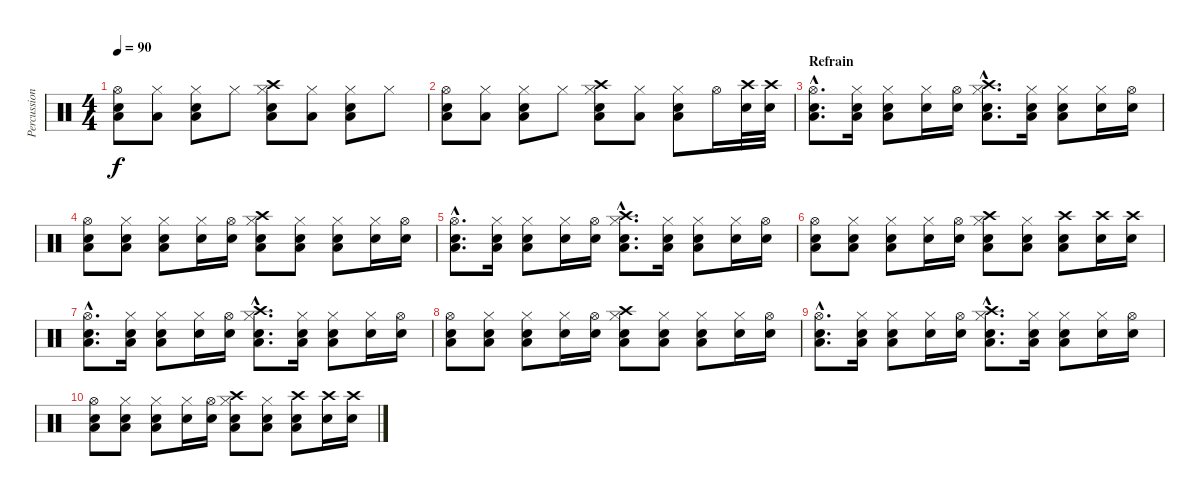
\track ("Percussions" "Percussion") {instrument percussion}
\staff {score}
\articulation defaults
\ts (4 4)
\tempo 90
\clef neutral
\ks c
("Hi-Hat (open)" "Snare (hit) 2" "Low Floor Tom (hit)").8{dy f} ("Hi-Hat (closed)" "Low Floor Tom (hit)").8 ("Hi-Hat (closed)" "Snare (hit) 2" "Low Floor Tom (hit)").8 "Hi-Hat (closed)".8 ("Hi-Hat (closed)" "Snare (hit) 2" "Low Floor Tom (hit)" "Crash high (hit)").8 ("Hi-Hat (closed)" "Low Floor Tom (hit)").8 ("Hi-Hat (closed)" "Snare (hit) 2" "Low Floor Tom (hit)").8 "Hi-Hat (closed)".8 |
("Hi-Hat (open)" "Snare (hit) 2" "Low Floor Tom (hit)").8 ("Hi-Hat (closed)" "Low Floor Tom (hit)").8 ("Hi-Hat (closed)" "Snare (hit) 2" "Low Floor Tom (hit)").8 "Hi-Hat (closed)".8 ("Hi-Hat (closed)" "Snare (hit) 2" "Low Floor Tom (hit)" "Crash high (hit)").8 ("Hi-Hat (closed)" "Low Floor Tom (hit)").8 ("Hi-Hat (closed)" "Snare (hit) 2" "Low Floor Tom (hit)").8 "Hi-Hat (open)".16 ("Crash high (hit)" "Snare (hit) 2").32 ("Crash high (hit)" "Snare (hit) 2").32 |
\section ("" "Refrain")
("Hi-Hat (open)"{hac} "Snare (hit) 2"{hac} "Low Floor Tom (hit)"{hac}).8{d} ("Hi-Hat (closed)" "Snare (hit) 2" "Low Floor Tom (hit)").16 ("Hi-Hat (closed)" "Snare (hit) 2" "Low Floor Tom (hit)").8 ("Hi-Hat (closed)" "Snare (hit) 2").16 ("Hi-Hat (open)" "Snare (hit) 2").16 ("Hi-Hat (closed)"{hac} "Snare (hit) 2"{hac} "Low Floor Tom (hit)"{hac} "Crash high (hit)"{hac}).8{d} ("Hi-Hat (closed)" "Snare (hit) 2" "Low Floor Tom (hit)").16 ("Hi-Hat (closed)" "Snare (hit) 2" "Low Floor Tom (hit)").8 ("Hi-Hat (closed)" "Snare (hit) 2").16 ("Hi-Hat (open)" "Snare (hit) 2").16 |
("Hi-Hat (open)" "Snare (hit) 2" "Low Floor Tom (hit)").8 ("Hi-Hat (closed)" "Snare (hit) 2" "Low Floor Tom (hit)").8 ("Hi-Hat (closed)" "Snare (hit) 2" "Low Floor Tom (hit)").8 ("Hi-Hat (closed)" "Snare (hit) 2").16 ("Hi-Hat (open)" "Snare (hit) 2").16 ("Hi-Hat (closed)" "Snare (hit) 2" "Low Floor Tom (hit)" "Crash high (hit)").8 ("Hi-Hat (closed)" "Snare (hit) 2" "Low Floor Tom (hit)").8 ("Hi-Hat (closed)" "Snare (hit) 2" "Low Floor Tom (hit)").8 ("Hi-Hat (closed)" "Snare (hit) 2").16 ("Hi-Hat (open)" "Snare (hit) 2").16 |
("Hi-Hat (open)"{hac} "Snare (hit) 2"{hac} "Low Floor Tom (hit)"{hac}).8{d} ("Hi-Hat (closed)" "Snare (hit) 2" "Low Floor Tom (hit)").16 ("Hi-Hat (closed)" "Snare (hit) 2" "Low Floor Tom (hit)").8 ("Hi-Hat (closed)" "Snare (hit) 2").16 ("Hi-Hat (open)" "Snare (hit) 2").16 ("Hi-Hat (closed)"{hac} "Snare (hit) 2"{hac} "Low Floor Tom (hit)"{hac} "Crash high (hit)"{hac}).8{d} ("Hi-Hat (closed)" "Snare (hit) 2" "Low Floor Tom (hit)").16 ("Hi-Hat (closed)" "Snare (hit) 2" "Low Floor Tom (hit)").8 ("Hi-Hat (closed)" "Snare (hit) 2").16 ("Hi-Hat (open)" "Snare (hit) 2").16 |
("Hi-Hat (open)" "Snare (hit) 2" "Low Floor Tom (hit)").8 ("Hi-Hat (closed)" "Snare (hit) 2" "Low Floor Tom (hit)").8 ("Hi-Hat (closed)" "Snare (hit) 2" "Low Floor Tom (hit)").8 ("Hi-Hat (closed)" "Snare (hit) 2").16 ("Hi-Hat (open)" "Snare (hit) 2").16 ("Hi-Hat (closed)" "Snare (hit) 2" "Low Floor Tom (hit)" "Crash high (hit)").8 ("Hi-Hat (closed)" "Snare (hit) 2" "Low Floor Tom (hit)").8 ("Crash high (hit)" "Snare (hit) 2" "Low Floor Tom (hit)").8 ("Crash high (hit)" "Snare (hit) 2").16 ("Crash high (hit)" "Snare (hit) 2").16 |
("Hi-Hat (open)"{hac} "Snare (hit) 2"{hac} "Low Floor Tom (hit)"{hac}).8{d} ("Hi-Hat (closed)" "Snare (hit) 2" "Low Floor Tom (hit)").16 ("Hi-Hat (closed)" "Snare (hit) 2" "Low Floor Tom (hit)").8 ("Hi-Hat (closed)" "Snare (hit) 2").16 ("Hi-Hat (open)" "Snare (hit) 2").16 ("Hi-Hat (closed)"{hac} "Snare (hit) 2"{hac} "Low Floor Tom (hit)"{hac} "Crash high (hit)"{hac}).8{d} ("Hi-Hat (closed)" "Snare (hit) 2" "Low Floor Tom (hit)").16 ("Hi-Hat (closed)" "Snare (hit) 2" "Low Floor Tom (hit)").8 ("Hi-Hat (closed)" "Snare (hit) 2").16 ("Hi-Hat (open)" "Snare (hit) 2").16 |
("Hi-Hat (open)" "Snare (hit) 2" "Low Floor Tom (hit)").8 ("Hi-Hat (closed)" "Snare (hit) 2" "Low Floor Tom (hit)").8 ("Hi-Hat (closed)" "Snare (hit) 2" "Low Floor Tom (hit)").8 ("Hi-Hat (closed)" "Snare (hit) 2").16 ("Hi-Hat (open)" "Snare (hit) 2").16 ("Hi-Hat (closed)" "Snare (hit) 2" "Low Floor Tom (hit)" "Crash high (hit)").8 ("Hi-Hat (closed)" "Snare (hit) 2" "Low Floor Tom (hit)").8 ("Hi-Hat (closed)" "Snare (hit) 2" "Low Floor Tom (hit)").8 ("Hi-Hat (closed)" "Snare (hit) 2").16 ("Hi-Hat (open)" "Snare (hit) 2").16 |
("Hi-Hat (open)"{hac} "Snare (hit) 2"{hac} "Low Floor Tom (hit)"{hac}).8{d} ("Hi-Hat (closed)" "Snare (hit) 2" "Low Floor Tom (hit)").16 ("Hi-Hat (closed)" "Snare (hit) 2" "Low Floor Tom (hit)").8 ("Hi-Hat (closed)" "Snare (hit) 2").16 ("Hi-Hat (open)" "Snare (hit) 2").16 ("Hi-Hat (closed)"{hac} "Snare (hit) 2"{hac} "Low Floor Tom (hit)"{hac} "Crash high (hit)"{hac}).8{d} ("Hi-Hat (closed)" "Snare (hit) 2" "Low Floor Tom (hit)").16 ("Hi-Hat (closed)" "Snare (hit) 2" "Low Floor Tom (hit)").8 ("Hi-Hat (closed)" "Snare (hit) 2").16 ("Hi-Hat (open)" "Snare (hit) 2").16 |
("Hi-Hat (open)" "Snare (hit) 2" "Low Floor Tom (hit)").8 ("Hi-Hat (closed)" "Snare (hit) 2" "Low Floor Tom (hit)").8 ("Hi-Hat (closed)" "Snare (hit) 2" "Low Floor Tom (hit)").8 ("Hi-Hat (closed)" "Snare (hit) 2").16 ("Hi-Hat (open)" "Snare (hit) 2").16 ("Hi-Hat (closed)" "Snare (hit) 2" "Low Floor Tom (hit)" "Crash high (hit)").8 ("Hi-Hat (closed)" "Snare (hit) 2" "Low Floor Tom (hit)").8 ("Crash high (hit)" "Snare (hit) 2" "Low Floor Tom (hit)").8 ("Crash high (hit)" "Snare (hit) 2").16 ("Crash high (hit)" "Snare (hit) 2").16
